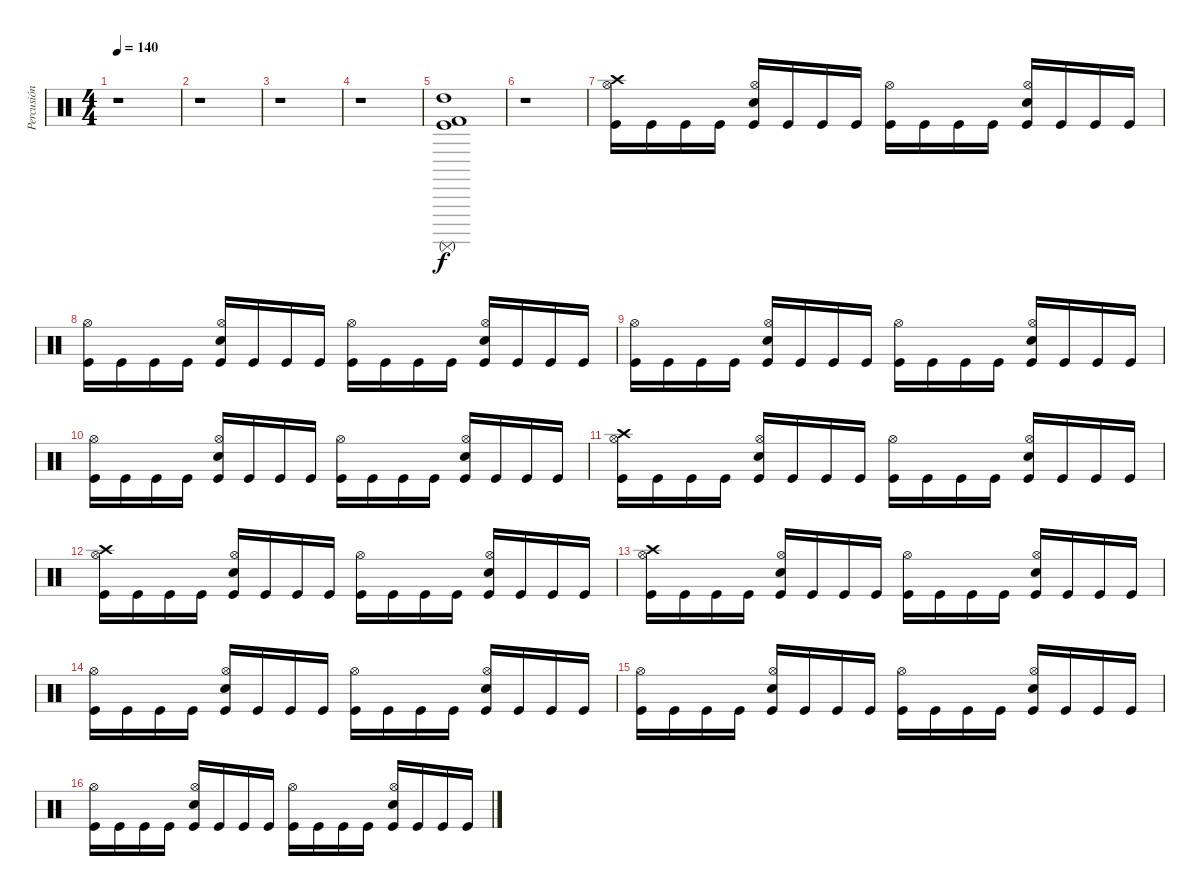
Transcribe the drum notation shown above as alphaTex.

\track ("Percusión" "Percusión") {instrument percussion}
\staff {score}
\articulation defaults
\ts (4 4)
\tempo 140
\clef neutral
\ks c
r.1{dy f} |
r.1 |
r.1 |
r.1 |
("High Tom (hit)" "Kick (hit) 2" "Kick (hit)" "Surdo (mute)").1 |
r.1 |
("Crash high (hit)" "Hi-Hat (open)" "Kick (hit)").16 "Kick (hit)".16 "Kick (hit)".16 "Kick (hit)".16 ("Snare (hit) 2" "Hi-Hat (open)" "Kick (hit)").16 "Kick (hit)".16 "Kick (hit)".16 "Kick (hit)".16 ("Hi-Hat (open)" "Kick (hit)").16 "Kick (hit)".16 "Kick (hit)".16 "Kick (hit)".16 ("Snare (hit) 2" "Hi-Hat (open)" "Kick (hit)").16 "Kick (hit)".16 "Kick (hit)".16 "Kick (hit)".16 |
("Hi-Hat (open)" "Kick (hit)").16 "Kick (hit)".16 "Kick (hit)".16 "Kick (hit)".16 ("Snare (hit) 2" "Hi-Hat (open)" "Kick (hit)").16 "Kick (hit)".16 "Kick (hit)".16 "Kick (hit)".16 ("Hi-Hat (open)" "Kick (hit)").16 "Kick (hit)".16 "Kick (hit)".16 "Kick (hit)".16 ("Snare (hit) 2" "Hi-Hat (open)" "Kick (hit)").16 "Kick (hit)".16 "Kick (hit)".16 "Kick (hit)".16 |
("Hi-Hat (open)" "Kick (hit)").16 "Kick (hit)".16 "Kick (hit)".16 "Kick (hit)".16 ("Snare (hit) 2" "Hi-Hat (open)" "Kick (hit)").16 "Kick (hit)".16 "Kick (hit)".16 "Kick (hit)".16 ("Hi-Hat (open)" "Kick (hit)").16 "Kick (hit)".16 "Kick (hit)".16 "Kick (hit)".16 ("Snare (hit) 2" "Hi-Hat (open)" "Kick (hit)").16 "Kick (hit)".16 "Kick (hit)".16 "Kick (hit)".16 |
("Hi-Hat (open)" "Kick (hit)").16 "Kick (hit)".16 "Kick (hit)".16 "Kick (hit)".16 ("Snare (hit) 2" "Hi-Hat (open)" "Kick (hit)").16 "Kick (hit)".16 "Kick (hit)".16 "Kick (hit)".16 ("Hi-Hat (open)" "Kick (hit)").16 "Kick (hit)".16 "Kick (hit)".16 "Kick (hit)".16 ("Snare (hit) 2" "Hi-Hat (open)" "Kick (hit)").16 "Kick (hit)".16 "Kick (hit)".16 "Kick (hit)".16 |
("Crash high (hit)" "Hi-Hat (open)" "Kick (hit)").16 "Kick (hit)".16 "Kick (hit)".16 "Kick (hit)".16 ("Snare (hit) 2" "Hi-Hat (open)" "Kick (hit)").16 "Kick (hit)".16 "Kick (hit)".16 "Kick (hit)".16 ("Hi-Hat (open)" "Kick (hit)").16 "Kick (hit)".16 "Kick (hit)".16 "Kick (hit)".16 ("Snare (hit) 2" "Hi-Hat (open)" "Kick (hit)").16 "Kick (hit)".16 "Kick (hit)".16 "Kick (hit)".16 |
("Crash high (hit)" "Hi-Hat (open)" "Kick (hit)").16 "Kick (hit)".16 "Kick (hit)".16 "Kick (hit)".16 ("Snare (hit) 2" "Hi-Hat (open)" "Kick (hit)").16 "Kick (hit)".16 "Kick (hit)".16 "Kick (hit)".16 ("Hi-Hat (open)" "Kick (hit)").16 "Kick (hit)".16 "Kick (hit)".16 "Kick (hit)".16 ("Snare (hit) 2" "Hi-Hat (open)" "Kick (hit)").16 "Kick (hit)".16 "Kick (hit)".16 "Kick (hit)".16 |
("Crash high (hit)" "Hi-Hat (open)" "Kick (hit)").16 "Kick (hit)".16 "Kick (hit)".16 "Kick (hit)".16 ("Snare (hit) 2" "Hi-Hat (open)" "Kick (hit)").16 "Kick (hit)".16 "Kick (hit)".16 "Kick (hit)".16 ("Hi-Hat (open)" "Kick (hit)").16 "Kick (hit)".16 "Kick (hit)".16 "Kick (hit)".16 ("Snare (hit) 2" "Hi-Hat (open)" "Kick (hit)").16 "Kick (hit)".16 "Kick (hit)".16 "Kick (hit)".16 |
("Hi-Hat (open)" "Kick (hit)").16 "Kick (hit)".16 "Kick (hit)".16 "Kick (hit)".16 ("Snare (hit) 2" "Hi-Hat (open)" "Kick (hit)").16 "Kick (hit)".16 "Kick (hit)".16 "Kick (hit)".16 ("Hi-Hat (open)" "Kick (hit)").16 "Kick (hit)".16 "Kick (hit)".16 "Kick (hit)".16 ("Snare (hit) 2" "Hi-Hat (open)" "Kick (hit)").16 "Kick (hit)".16 "Kick (hit)".16 "Kick (hit)".16 |
("Hi-Hat (open)" "Kick (hit)").16 "Kick (hit)".16 "Kick (hit)".16 "Kick (hit)".16 ("Snare (hit) 2" "Hi-Hat (open)" "Kick (hit)").16 "Kick (hit)".16 "Kick (hit)".16 "Kick (hit)".16 ("Hi-Hat (open)" "Kick (hit)").16 "Kick (hit)".16 "Kick (hit)".16 "Kick (hit)".16 ("Snare (hit) 2" "Hi-Hat (open)" "Kick (hit)").16 "Kick (hit)".16 "Kick (hit)".16 "Kick (hit)".16 |
("Hi-Hat (open)" "Kick (hit)").16 "Kick (hit)".16 "Kick (hit)".16 "Kick (hit)".16 ("Snare (hit) 2" "Hi-Hat (open)" "Kick (hit)").16 "Kick (hit)".16 "Kick (hit)".16 "Kick (hit)".16 ("Hi-Hat (open)" "Kick (hit)").16 "Kick (hit)".16 "Kick (hit)".16 "Kick (hit)".16 ("Snare (hit) 2" "Hi-Hat (open)" "Kick (hit)").16 "Kick (hit)".16 "Kick (hit)".16 "Kick (hit)".16
